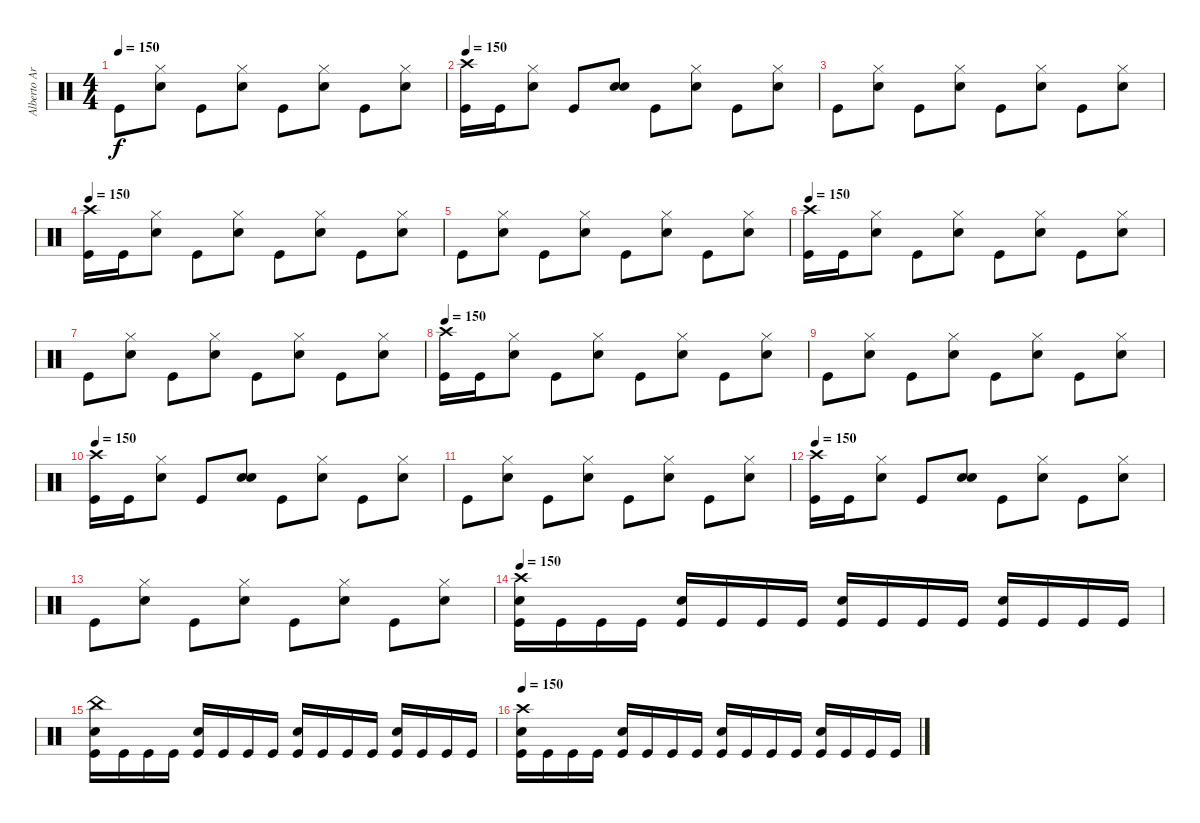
\track ("Alberto Ardines" "Alberto Ar") {instrument percussion}
\staff {score}
\articulation defaults
\ts (4 4)
\tempo 150
\clef neutral
\ks c "Kick (hit)".8{dy f}
("Snare (hit) 2" "Hi-Hat (closed)").8 "Kick (hit)".8 ("Snare (hit) 2" "Hi-Hat (closed)").8 "Kick (hit)".8 ("Snare (hit) 2" "Hi-Hat (closed)").8 "Kick (hit)".8 ("Snare (hit) 2" "Hi-Hat (closed)").8 |
\tempo 150
("Crash high (hit)" "Kick (hit)").16 "Kick (hit)".16 ("Snare (hit) 2" "Hi-Hat (closed)").8 "Kick (hit)".8 ("Snare (hit) 2" "Snare (hit)").8 "Kick (hit)".8 ("Snare (hit) 2" "Hi-Hat (closed)").8 "Kick (hit)".8 ("Snare (hit) 2" "Hi-Hat (closed)").8 |
"Kick (hit)".8 ("Snare (hit) 2" "Hi-Hat (closed)").8 "Kick (hit)".8 ("Snare (hit) 2" "Hi-Hat (closed)").8 "Kick (hit)".8 ("Snare (hit) 2" "Hi-Hat (closed)").8 "Kick (hit)".8 ("Snare (hit) 2" "Hi-Hat (closed)").8 |
\tempo 150
("Crash high (hit)" "Kick (hit)").16 "Kick (hit)".16 ("Snare (hit) 2" "Hi-Hat (closed)").8 "Kick (hit)".8 ("Snare (hit) 2" "Hi-Hat (closed)").8 "Kick (hit)".8 ("Snare (hit) 2" "Hi-Hat (closed)").8 "Kick (hit)".8 ("Snare (hit) 2" "Hi-Hat (closed)").8 |
"Kick (hit)".8 ("Snare (hit) 2" "Hi-Hat (closed)").8 "Kick (hit)".8 ("Snare (hit) 2" "Hi-Hat (closed)").8 "Kick (hit)".8 ("Snare (hit) 2" "Hi-Hat (closed)").8 "Kick (hit)".8 ("Snare (hit) 2" "Hi-Hat (closed)").8 |
\tempo 150
("Crash high (hit)" "Kick (hit)").16 "Kick (hit)".16 ("Snare (hit) 2" "Hi-Hat (closed)").8 "Kick (hit)".8 ("Snare (hit) 2" "Hi-Hat (closed)").8 "Kick (hit)".8 ("Snare (hit) 2" "Hi-Hat (closed)").8 "Kick (hit)".8 ("Snare (hit) 2" "Hi-Hat (closed)").8 |
"Kick (hit)".8 ("Snare (hit) 2" "Hi-Hat (closed)").8 "Kick (hit)".8 ("Snare (hit) 2" "Hi-Hat (closed)").8 "Kick (hit)".8 ("Snare (hit) 2" "Hi-Hat (closed)").8 "Kick (hit)".8 ("Snare (hit) 2" "Hi-Hat (closed)").8 |
\tempo 150
("Crash high (hit)" "Kick (hit)").16 "Kick (hit)".16 ("Snare (hit) 2" "Hi-Hat (closed)").8 "Kick (hit)".8 ("Snare (hit) 2" "Hi-Hat (closed)").8 "Kick (hit)".8 ("Snare (hit) 2" "Hi-Hat (closed)").8 "Kick (hit)".8 ("Snare (hit) 2" "Hi-Hat (closed)").8 |
"Kick (hit)".8 ("Snare (hit) 2" "Hi-Hat (closed)").8 "Kick (hit)".8 ("Snare (hit) 2" "Hi-Hat (closed)").8 "Kick (hit)".8 ("Snare (hit) 2" "Hi-Hat (closed)").8 "Kick (hit)".8 ("Snare (hit) 2" "Hi-Hat (closed)").8 |
\tempo 150
("Crash high (hit)" "Kick (hit)").16 "Kick (hit)".16 ("Snare (hit) 2" "Hi-Hat (closed)").8 "Kick (hit)".8 ("Snare (hit) 2" "Snare (hit)").8 "Kick (hit)".8 ("Snare (hit) 2" "Hi-Hat (closed)").8 "Kick (hit)".8 ("Snare (hit) 2" "Hi-Hat (closed)").8 |
"Kick (hit)".8 ("Snare (hit) 2" "Hi-Hat (closed)").8 "Kick (hit)".8 ("Snare (hit) 2" "Hi-Hat (closed)").8 "Kick (hit)".8 ("Snare (hit) 2" "Hi-Hat (closed)").8 "Kick (hit)".8 ("Snare (hit) 2" "Hi-Hat (closed)").8 |
\tempo 150
("Crash high (hit)" "Kick (hit)").16 "Kick (hit)".16 ("Snare (hit) 2" "Hi-Hat (closed)").8 "Kick (hit)".8 ("Snare (hit) 2" "Snare (hit)").8 "Kick (hit)".8 ("Snare (hit) 2" "Hi-Hat (closed)").8 "Kick (hit)".8 ("Snare (hit) 2" "Hi-Hat (closed)").8 |
"Kick (hit)".8 ("Snare (hit) 2" "Hi-Hat (closed)").8 "Kick (hit)".8 ("Snare (hit) 2" "Hi-Hat (closed)").8 "Kick (hit)".8 ("Snare (hit) 2" "Hi-Hat (closed)").8 "Kick (hit)".8 ("Snare (hit) 2" "Hi-Hat (closed)").8 |
\tempo 150
("Crash high (hit)" "Kick (hit)" "Snare (hit) 2").16 "Kick (hit)".16 "Kick (hit)".16 "Kick (hit)".16 ("Kick (hit)" "Snare (hit) 2").16 "Kick (hit)".16 "Kick (hit)".16 "Kick (hit)".16 ("Kick (hit)" "Snare (hit) 2").16 "Kick (hit)".16 "Kick (hit)".16 "Kick (hit)".16 ("Kick (hit)" "Snare (hit) 2").16 "Kick (hit)".16 "Kick (hit)".16 "Kick (hit)".16 |
("China (hit)" "Kick (hit)" "Snare (hit) 2").16 "Kick (hit)".16 "Kick (hit)".16 "Kick (hit)".16 ("Kick (hit)" "Snare (hit) 2").16 "Kick (hit)".16 "Kick (hit)".16 "Kick (hit)".16 ("Kick (hit)" "Snare (hit) 2").16 "Kick (hit)".16 "Kick (hit)".16 "Kick (hit)".16 ("Kick (hit)" "Snare (hit) 2").16 "Kick (hit)".16 "Kick (hit)".16 "Kick (hit)".16 |
\tempo 150
("Crash high (hit)" "Kick (hit)" "Snare (hit) 2").16 "Kick (hit)".16 "Kick (hit)".16 "Kick (hit)".16 ("Kick (hit)" "Snare (hit) 2").16 "Kick (hit)".16 "Kick (hit)".16 "Kick (hit)".16 ("Kick (hit)" "Snare (hit) 2").16 "Kick (hit)".16 "Kick (hit)".16 "Kick (hit)".16 ("Kick (hit)" "Snare (hit) 2").16 "Kick (hit)".16 "Kick (hit)".16 "Kick (hit)".16
